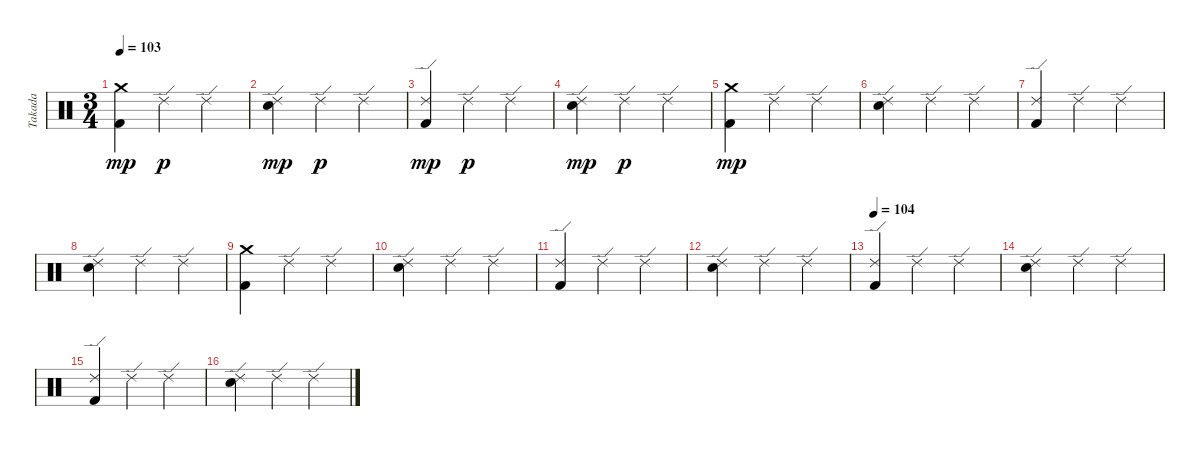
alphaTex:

\track ("Takada" "Takada") {instrument percussion}
\staff {score}
\articulation defaults
\ts (3 4)
\tempo 103
\clef neutral
\ks c
("Crash medium (hit)" "Kick (hit) 2").4{dy mp} "Ride (edge) 2".4{dy p} "Ride (edge) 2".4 |
("Ride (edge) 2" "Electric Snare (hit)").4{dy mp} "Ride (edge) 2".4{dy p} "Ride (edge) 2".4 |
("Ride (edge) 2" "Kick (hit) 2").4{dy mp} "Ride (edge) 2".4{dy p} "Ride (edge) 2".4 |
("Ride (edge) 2" "Electric Snare (hit)").4{dy mp} "Ride (edge) 2".4{dy p} "Ride (edge) 2".4 |
("Crash medium (hit)" "Kick (hit) 2").4{dy mp} "Ride (edge) 2".4 "Ride (edge) 2".4 |
("Ride (edge) 2" "Electric Snare (hit)").4 "Ride (edge) 2".4 "Ride (edge) 2".4 |
("Ride (edge) 2" "Kick (hit) 2").4 "Ride (edge) 2".4 "Ride (edge) 2".4 |
("Ride (edge) 2" "Electric Snare (hit)").4 "Ride (edge) 2".4 "Ride (edge) 2".4 |
("Crash medium (hit)" "Kick (hit) 2").4 "Ride (edge) 2".4 "Ride (edge) 2".4 |
("Ride (edge) 2" "Electric Snare (hit)").4 "Ride (edge) 2".4 "Ride (edge) 2".4 |
("Ride (edge) 2" "Kick (hit) 2").4 "Ride (edge) 2".4 "Ride (edge) 2".4 |
("Ride (edge) 2" "Electric Snare (hit)").4 "Ride (edge) 2".4 "Ride (edge) 2".4 |
\tempo 104
("Ride (edge) 2" "Kick (hit) 2").4 "Ride (edge) 2".4 "Ride (edge) 2".4 |
("Ride (edge) 2" "Electric Snare (hit)").4 "Ride (edge) 2".4 "Ride (edge) 2".4 |
("Ride (edge) 2" "Kick (hit) 2").4 "Ride (edge) 2".4 "Ride (edge) 2".4 |
("Ride (edge) 2" "Electric Snare (hit)").4 "Ride (edge) 2".4 "Ride (edge) 2".4
